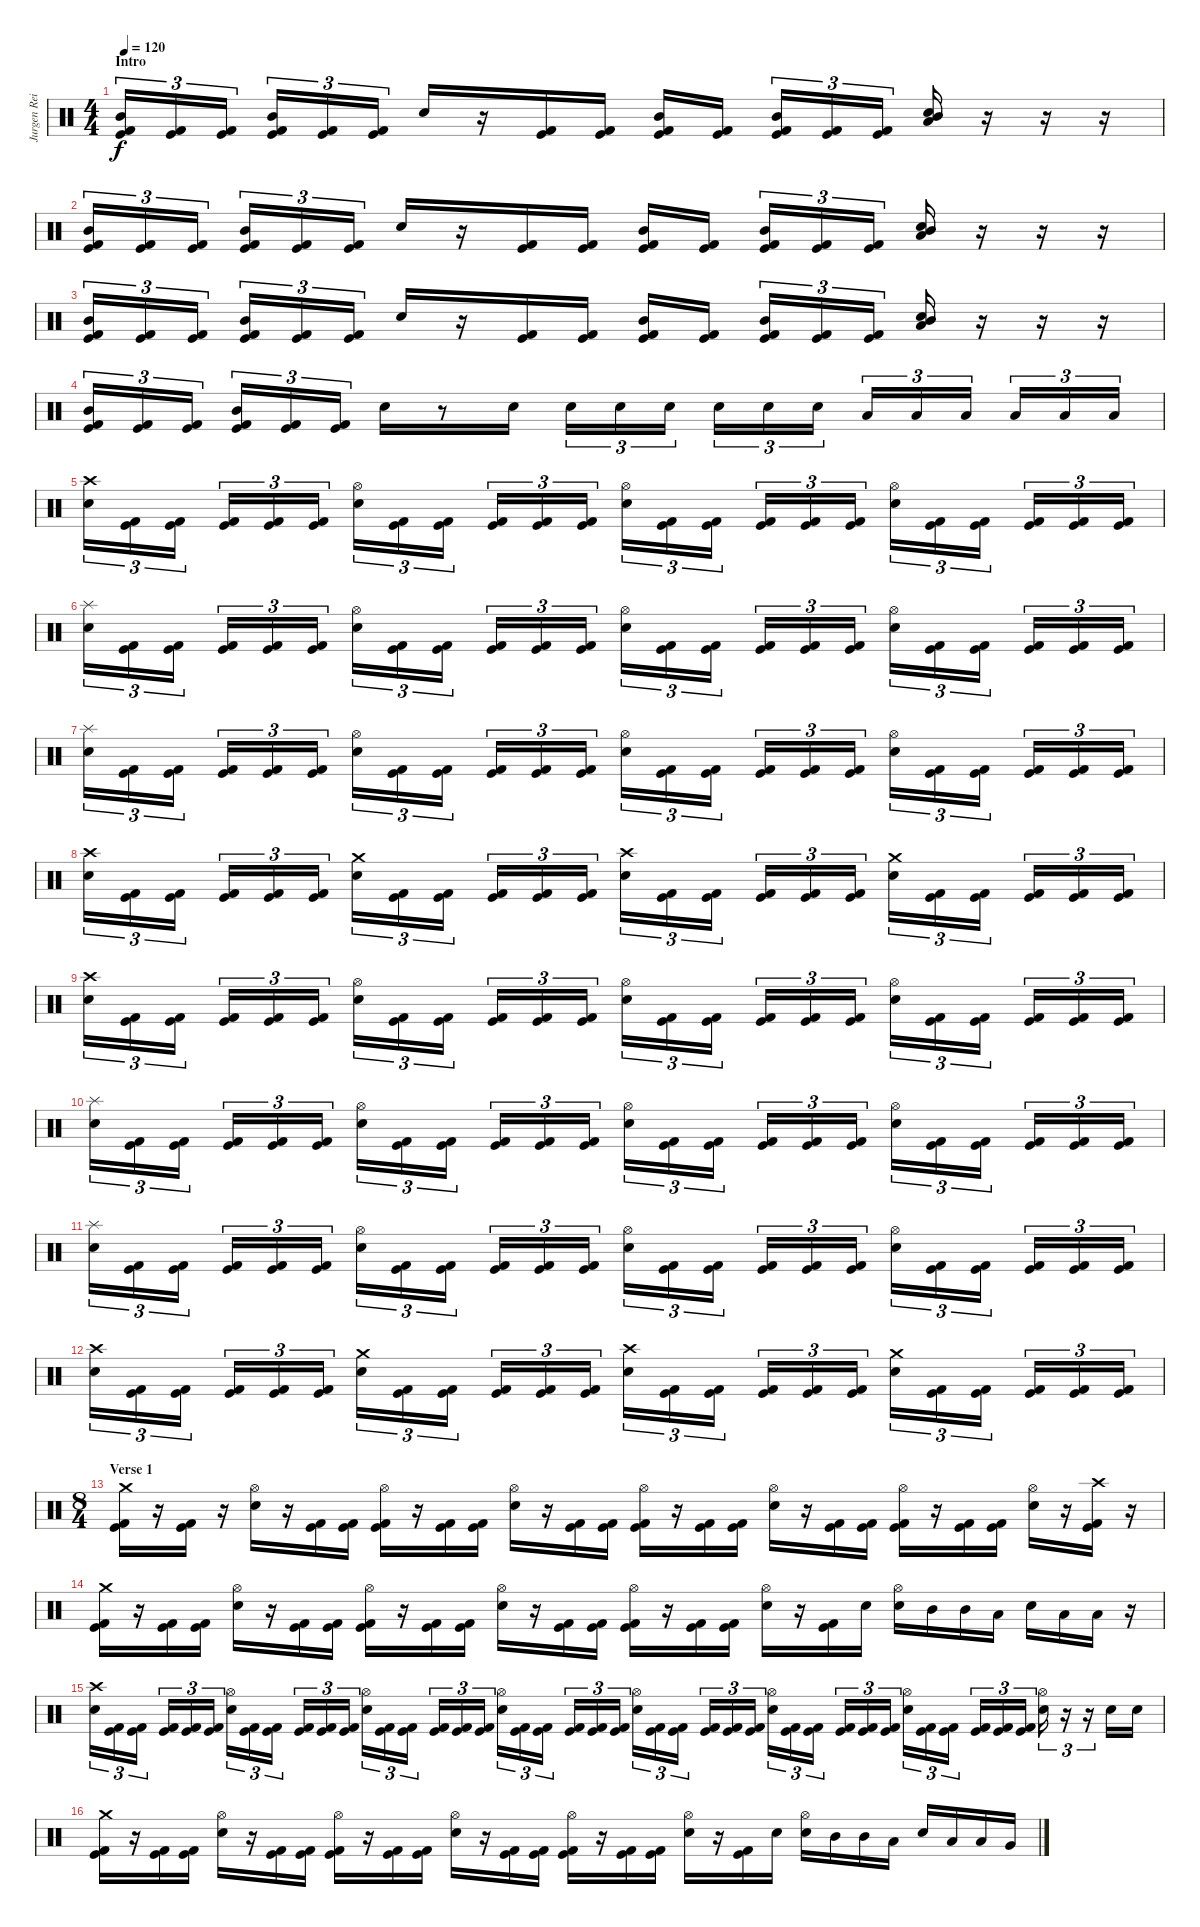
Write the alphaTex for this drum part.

\track ("Jurgen Reil" "Jurgen Rei") {instrument percussion}
\staff {score}
\articulation defaults
\ts (4 4)
\section ("" "Intro")
\tempo 120
\clef neutral
\ks c
("Mid Tom (hit)" "Kick (hit)" "Kick (hit) 2").16{tu (3 2) dy f} ("Kick (hit)" "Kick (hit) 2").16{tu (3 2)} ("Kick (hit)" "Kick (hit) 2").16{tu (3 2)} ("Mid Tom (hit)" "Kick (hit)" "Kick (hit) 2").16{tu (3 2)} ("Kick (hit)" "Kick (hit) 2").16{tu (3 2)} ("Kick (hit)" "Kick (hit) 2").16{tu (3 2)} "Electric Snare (hit)".16 r.16 ("Kick (hit)" "Kick (hit) 2").16 ("Kick (hit)" "Kick (hit) 2").16 ("Mid Tom (hit)" "Kick (hit)" "Kick (hit) 2").16 ("Kick (hit)" "Kick (hit) 2").16 ("Mid Tom (hit)" "Kick (hit)" "Kick (hit) 2").16{tu (3 2)} ("Kick (hit)" "Kick (hit) 2").16{tu (3 2)} ("Kick (hit)" "Kick (hit) 2").16{tu (3 2)} ("Mid Tom (hit)" "Low Tom (hit)" "Electric Snare (hit)").16 r.16 r.16 r.16 |
("Mid Tom (hit)" "Kick (hit)" "Kick (hit) 2").16{tu (3 2)} ("Kick (hit)" "Kick (hit) 2").16{tu (3 2)} ("Kick (hit)" "Kick (hit) 2").16{tu (3 2)} ("Mid Tom (hit)" "Kick (hit)" "Kick (hit) 2").16{tu (3 2)} ("Kick (hit)" "Kick (hit) 2").16{tu (3 2)} ("Kick (hit)" "Kick (hit) 2").16{tu (3 2)} "Electric Snare (hit)".16 r.16 ("Kick (hit)" "Kick (hit) 2").16 ("Kick (hit)" "Kick (hit) 2").16 ("Mid Tom (hit)" "Kick (hit)" "Kick (hit) 2").16 ("Kick (hit)" "Kick (hit) 2").16 ("Mid Tom (hit)" "Kick (hit)" "Kick (hit) 2").16{tu (3 2)} ("Kick (hit)" "Kick (hit) 2").16{tu (3 2)} ("Kick (hit)" "Kick (hit) 2").16{tu (3 2)} ("Mid Tom (hit)" "Low Tom (hit)" "Electric Snare (hit)").16 r.16 r.16 r.16 |
("Mid Tom (hit)" "Kick (hit)" "Kick (hit) 2").16{tu (3 2)} ("Kick (hit)" "Kick (hit) 2").16{tu (3 2)} ("Kick (hit)" "Kick (hit) 2").16{tu (3 2)} ("Mid Tom (hit)" "Kick (hit)" "Kick (hit) 2").16{tu (3 2)} ("Kick (hit)" "Kick (hit) 2").16{tu (3 2)} ("Kick (hit)" "Kick (hit) 2").16{tu (3 2)} "Electric Snare (hit)".16 r.16 ("Kick (hit)" "Kick (hit) 2").16 ("Kick (hit)" "Kick (hit) 2").16 ("Mid Tom (hit)" "Kick (hit)" "Kick (hit) 2").16 ("Kick (hit)" "Kick (hit) 2").16 ("Mid Tom (hit)" "Kick (hit)" "Kick (hit) 2").16{tu (3 2)} ("Kick (hit)" "Kick (hit) 2").16{tu (3 2)} ("Kick (hit)" "Kick (hit) 2").16{tu (3 2)} ("Mid Tom (hit)" "Low Tom (hit)" "Electric Snare (hit)").16 r.16 r.16 r.16 |
("Mid Tom (hit)" "Kick (hit)" "Kick (hit) 2").16{tu (3 2)} ("Kick (hit)" "Kick (hit) 2").16{tu (3 2)} ("Kick (hit)" "Kick (hit) 2").16{tu (3 2)} ("Mid Tom (hit)" "Kick (hit)" "Kick (hit) 2").16{tu (3 2)} ("Kick (hit)" "Kick (hit) 2").16{tu (3 2)} ("Kick (hit)" "Kick (hit) 2").16{tu (3 2)} "Electric Snare (hit)".16 r.8 "Electric Snare (hit)".16 "Electric Snare (hit)".16{tu (3 2)} "Electric Snare (hit)".16{tu (3 2)} "Electric Snare (hit)".16{tu (3 2)} "Electric Snare (hit)".16{tu (3 2)} "Electric Snare (hit)".16{tu (3 2)} "Electric Snare (hit)".16{tu (3 2)} "Low Tom (hit)".16{tu (3 2)} "Low Tom (hit)".16{tu (3 2)} "Low Tom (hit)".16{tu (3 2)} "Low Tom (hit)".16{tu (3 2)} "Low Tom (hit)".16{tu (3 2)} "Low Tom (hit)".16{tu (3 2)} |
("Crash high (hit)" "Electric Snare (hit)").16{tu (3 2)} ("Kick (hit)" "Kick (hit) 2").16{tu (3 2)} ("Kick (hit)" "Kick (hit) 2").16{tu (3 2)} ("Kick (hit)" "Kick (hit) 2").16{tu (3 2)} ("Kick (hit)" "Kick (hit) 2").16{tu (3 2)} ("Kick (hit)" "Kick (hit) 2").16{tu (3 2)} ("Hi-Hat (open)" "Electric Snare (hit)").16{tu (3 2)} ("Kick (hit)" "Kick (hit) 2").16{tu (3 2)} ("Kick (hit)" "Kick (hit) 2").16{tu (3 2)} ("Kick (hit)" "Kick (hit) 2").16{tu (3 2)} ("Kick (hit)" "Kick (hit) 2").16{tu (3 2)} ("Kick (hit)" "Kick (hit) 2").16{tu (3 2)} ("Hi-Hat (open)" "Electric Snare (hit)").16{tu (3 2)} ("Kick (hit)" "Kick (hit) 2").16{tu (3 2)} ("Kick (hit)" "Kick (hit) 2").16{tu (3 2)} ("Kick (hit)" "Kick (hit) 2").16{tu (3 2)} ("Kick (hit)" "Kick (hit) 2").16{tu (3 2)} ("Kick (hit)" "Kick (hit) 2").16{tu (3 2)} ("Hi-Hat (open)" "Electric Snare (hit)").16{tu (3 2)} ("Kick (hit)" "Kick (hit) 2").16{tu (3 2)} ("Kick (hit)" "Kick (hit) 2").16{tu (3 2)} ("Kick (hit)" "Kick (hit) 2").16{tu (3 2)} ("Kick (hit)" "Kick (hit) 2").16{tu (3 2)} ("Kick (hit)" "Kick (hit) 2").16{tu (3 2)} |
("Splash (hit)" "Electric Snare (hit)").16{tu (3 2)} ("Kick (hit)" "Kick (hit) 2").16{tu (3 2)} ("Kick (hit)" "Kick (hit) 2").16{tu (3 2)} ("Kick (hit)" "Kick (hit) 2").16{tu (3 2)} ("Kick (hit)" "Kick (hit) 2").16{tu (3 2)} ("Kick (hit)" "Kick (hit) 2").16{tu (3 2)} ("Hi-Hat (open)" "Electric Snare (hit)").16{tu (3 2)} ("Kick (hit)" "Kick (hit) 2").16{tu (3 2)} ("Kick (hit)" "Kick (hit) 2").16{tu (3 2)} ("Kick (hit)" "Kick (hit) 2").16{tu (3 2)} ("Kick (hit)" "Kick (hit) 2").16{tu (3 2)} ("Kick (hit)" "Kick (hit) 2").16{tu (3 2)} ("Hi-Hat (open)" "Electric Snare (hit)").16{tu (3 2)} ("Kick (hit)" "Kick (hit) 2").16{tu (3 2)} ("Kick (hit)" "Kick (hit) 2").16{tu (3 2)} ("Kick (hit)" "Kick (hit) 2").16{tu (3 2)} ("Kick (hit)" "Kick (hit) 2").16{tu (3 2)} ("Kick (hit)" "Kick (hit) 2").16{tu (3 2)} ("Hi-Hat (open)" "Electric Snare (hit)").16{tu (3 2)} ("Kick (hit)" "Kick (hit) 2").16{tu (3 2)} ("Kick (hit)" "Kick (hit) 2").16{tu (3 2)} ("Kick (hit)" "Kick (hit) 2").16{tu (3 2)} ("Kick (hit)" "Kick (hit) 2").16{tu (3 2)} ("Kick (hit)" "Kick (hit) 2").16{tu (3 2)} |
("Splash (hit)" "Electric Snare (hit)").16{tu (3 2)} ("Kick (hit)" "Kick (hit) 2").16{tu (3 2)} ("Kick (hit)" "Kick (hit) 2").16{tu (3 2)} ("Kick (hit)" "Kick (hit) 2").16{tu (3 2)} ("Kick (hit)" "Kick (hit) 2").16{tu (3 2)} ("Kick (hit)" "Kick (hit) 2").16{tu (3 2)} ("Hi-Hat (open)" "Electric Snare (hit)").16{tu (3 2)} ("Kick (hit)" "Kick (hit) 2").16{tu (3 2)} ("Kick (hit)" "Kick (hit) 2").16{tu (3 2)} ("Kick (hit)" "Kick (hit) 2").16{tu (3 2)} ("Kick (hit)" "Kick (hit) 2").16{tu (3 2)} ("Kick (hit)" "Kick (hit) 2").16{tu (3 2)} ("Hi-Hat (open)" "Electric Snare (hit)").16{tu (3 2)} ("Kick (hit)" "Kick (hit) 2").16{tu (3 2)} ("Kick (hit)" "Kick (hit) 2").16{tu (3 2)} ("Kick (hit)" "Kick (hit) 2").16{tu (3 2)} ("Kick (hit)" "Kick (hit) 2").16{tu (3 2)} ("Kick (hit)" "Kick (hit) 2").16{tu (3 2)} ("Hi-Hat (open)" "Electric Snare (hit)").16{tu (3 2)} ("Kick (hit)" "Kick (hit) 2").16{tu (3 2)} ("Kick (hit)" "Kick (hit) 2").16{tu (3 2)} ("Kick (hit)" "Kick (hit) 2").16{tu (3 2)} ("Kick (hit)" "Kick (hit) 2").16{tu (3 2)} ("Kick (hit)" "Kick (hit) 2").16{tu (3 2)} |
("Crash high (hit)" "Electric Snare (hit)").16{tu (3 2)} ("Kick (hit)" "Kick (hit) 2").16{tu (3 2)} ("Kick (hit)" "Kick (hit) 2").16{tu (3 2)} ("Kick (hit)" "Kick (hit) 2").16{tu (3 2)} ("Kick (hit)" "Kick (hit) 2").16{tu (3 2)} ("Kick (hit)" "Kick (hit) 2").16{tu (3 2)} ("Crash medium (hit)" "Electric Snare (hit)").16{tu (3 2)} ("Kick (hit)" "Kick (hit) 2").16{tu (3 2)} ("Kick (hit)" "Kick (hit) 2").16{tu (3 2)} ("Kick (hit)" "Kick (hit) 2").16{tu (3 2)} ("Kick (hit)" "Kick (hit) 2").16{tu (3 2)} ("Kick (hit)" "Kick (hit) 2").16{tu (3 2)} ("Crash high (hit)" "Electric Snare (hit)").16{tu (3 2)} ("Kick (hit)" "Kick (hit) 2").16{tu (3 2)} ("Kick (hit)" "Kick (hit) 2").16{tu (3 2)} ("Kick (hit)" "Kick (hit) 2").16{tu (3 2)} ("Kick (hit)" "Kick (hit) 2").16{tu (3 2)} ("Kick (hit)" "Kick (hit) 2").16{tu (3 2)} ("Crash medium (hit)" "Electric Snare (hit)").16{tu (3 2)} ("Kick (hit)" "Kick (hit) 2").16{tu (3 2)} ("Kick (hit)" "Kick (hit) 2").16{tu (3 2)} ("Kick (hit)" "Kick (hit) 2").16{tu (3 2)} ("Kick (hit)" "Kick (hit) 2").16{tu (3 2)} ("Kick (hit)" "Kick (hit) 2").16{tu (3 2)} |
("Crash high (hit)" "Electric Snare (hit)").16{tu (3 2)} ("Kick (hit)" "Kick (hit) 2").16{tu (3 2)} ("Kick (hit)" "Kick (hit) 2").16{tu (3 2)} ("Kick (hit)" "Kick (hit) 2").16{tu (3 2)} ("Kick (hit)" "Kick (hit) 2").16{tu (3 2)} ("Kick (hit)" "Kick (hit) 2").16{tu (3 2)} ("Hi-Hat (open)" "Electric Snare (hit)").16{tu (3 2)} ("Kick (hit)" "Kick (hit) 2").16{tu (3 2)} ("Kick (hit)" "Kick (hit) 2").16{tu (3 2)} ("Kick (hit)" "Kick (hit) 2").16{tu (3 2)} ("Kick (hit)" "Kick (hit) 2").16{tu (3 2)} ("Kick (hit)" "Kick (hit) 2").16{tu (3 2)} ("Hi-Hat (open)" "Electric Snare (hit)").16{tu (3 2)} ("Kick (hit)" "Kick (hit) 2").16{tu (3 2)} ("Kick (hit)" "Kick (hit) 2").16{tu (3 2)} ("Kick (hit)" "Kick (hit) 2").16{tu (3 2)} ("Kick (hit)" "Kick (hit) 2").16{tu (3 2)} ("Kick (hit)" "Kick (hit) 2").16{tu (3 2)} ("Hi-Hat (open)" "Electric Snare (hit)").16{tu (3 2)} ("Kick (hit)" "Kick (hit) 2").16{tu (3 2)} ("Kick (hit)" "Kick (hit) 2").16{tu (3 2)} ("Kick (hit)" "Kick (hit) 2").16{tu (3 2)} ("Kick (hit)" "Kick (hit) 2").16{tu (3 2)} ("Kick (hit)" "Kick (hit) 2").16{tu (3 2)} |
("Splash (hit)" "Electric Snare (hit)").16{tu (3 2)} ("Kick (hit)" "Kick (hit) 2").16{tu (3 2)} ("Kick (hit)" "Kick (hit) 2").16{tu (3 2)} ("Kick (hit)" "Kick (hit) 2").16{tu (3 2)} ("Kick (hit)" "Kick (hit) 2").16{tu (3 2)} ("Kick (hit)" "Kick (hit) 2").16{tu (3 2)} ("Hi-Hat (open)" "Electric Snare (hit)").16{tu (3 2)} ("Kick (hit)" "Kick (hit) 2").16{tu (3 2)} ("Kick (hit)" "Kick (hit) 2").16{tu (3 2)} ("Kick (hit)" "Kick (hit) 2").16{tu (3 2)} ("Kick (hit)" "Kick (hit) 2").16{tu (3 2)} ("Kick (hit)" "Kick (hit) 2").16{tu (3 2)} ("Hi-Hat (open)" "Electric Snare (hit)").16{tu (3 2)} ("Kick (hit)" "Kick (hit) 2").16{tu (3 2)} ("Kick (hit)" "Kick (hit) 2").16{tu (3 2)} ("Kick (hit)" "Kick (hit) 2").16{tu (3 2)} ("Kick (hit)" "Kick (hit) 2").16{tu (3 2)} ("Kick (hit)" "Kick (hit) 2").16{tu (3 2)} ("Hi-Hat (open)" "Electric Snare (hit)").16{tu (3 2)} ("Kick (hit)" "Kick (hit) 2").16{tu (3 2)} ("Kick (hit)" "Kick (hit) 2").16{tu (3 2)} ("Kick (hit)" "Kick (hit) 2").16{tu (3 2)} ("Kick (hit)" "Kick (hit) 2").16{tu (3 2)} ("Kick (hit)" "Kick (hit) 2").16{tu (3 2)} |
("Splash (hit)" "Electric Snare (hit)").16{tu (3 2)} ("Kick (hit)" "Kick (hit) 2").16{tu (3 2)} ("Kick (hit)" "Kick (hit) 2").16{tu (3 2)} ("Kick (hit)" "Kick (hit) 2").16{tu (3 2)} ("Kick (hit)" "Kick (hit) 2").16{tu (3 2)} ("Kick (hit)" "Kick (hit) 2").16{tu (3 2)} ("Hi-Hat (open)" "Electric Snare (hit)").16{tu (3 2)} ("Kick (hit)" "Kick (hit) 2").16{tu (3 2)} ("Kick (hit)" "Kick (hit) 2").16{tu (3 2)} ("Kick (hit)" "Kick (hit) 2").16{tu (3 2)} ("Kick (hit)" "Kick (hit) 2").16{tu (3 2)} ("Kick (hit)" "Kick (hit) 2").16{tu (3 2)} ("Hi-Hat (open)" "Electric Snare (hit)").16{tu (3 2)} ("Kick (hit)" "Kick (hit) 2").16{tu (3 2)} ("Kick (hit)" "Kick (hit) 2").16{tu (3 2)} ("Kick (hit)" "Kick (hit) 2").16{tu (3 2)} ("Kick (hit)" "Kick (hit) 2").16{tu (3 2)} ("Kick (hit)" "Kick (hit) 2").16{tu (3 2)} ("Hi-Hat (open)" "Electric Snare (hit)").16{tu (3 2)} ("Kick (hit)" "Kick (hit) 2").16{tu (3 2)} ("Kick (hit)" "Kick (hit) 2").16{tu (3 2)} ("Kick (hit)" "Kick (hit) 2").16{tu (3 2)} ("Kick (hit)" "Kick (hit) 2").16{tu (3 2)} ("Kick (hit)" "Kick (hit) 2").16{tu (3 2)} |
("Crash high (hit)" "Electric Snare (hit)").16{tu (3 2)} ("Kick (hit)" "Kick (hit) 2").16{tu (3 2)} ("Kick (hit)" "Kick (hit) 2").16{tu (3 2)} ("Kick (hit)" "Kick (hit) 2").16{tu (3 2)} ("Kick (hit)" "Kick (hit) 2").16{tu (3 2)} ("Kick (hit)" "Kick (hit) 2").16{tu (3 2)} ("Crash medium (hit)" "Electric Snare (hit)").16{tu (3 2)} ("Kick (hit)" "Kick (hit) 2").16{tu (3 2)} ("Kick (hit)" "Kick (hit) 2").16{tu (3 2)} ("Kick (hit)" "Kick (hit) 2").16{tu (3 2)} ("Kick (hit)" "Kick (hit) 2").16{tu (3 2)} ("Kick (hit)" "Kick (hit) 2").16{tu (3 2)} ("Crash high (hit)" "Electric Snare (hit)").16{tu (3 2)} ("Kick (hit)" "Kick (hit) 2").16{tu (3 2)} ("Kick (hit)" "Kick (hit) 2").16{tu (3 2)} ("Kick (hit)" "Kick (hit) 2").16{tu (3 2)} ("Kick (hit)" "Kick (hit) 2").16{tu (3 2)} ("Kick (hit)" "Kick (hit) 2").16{tu (3 2)} ("Crash medium (hit)" "Electric Snare (hit)").16{tu (3 2)} ("Kick (hit)" "Kick (hit) 2").16{tu (3 2)} ("Kick (hit)" "Kick (hit) 2").16{tu (3 2)} ("Kick (hit)" "Kick (hit) 2").16{tu (3 2)} ("Kick (hit)" "Kick (hit) 2").16{tu (3 2)} ("Kick (hit)" "Kick (hit) 2").16{tu (3 2)} |
\ts (8 4)
\section ("" "Verse 1")
("Crash medium (hit)" "Kick (hit)" "Kick (hit) 2").16 r.16 ("Kick (hit)" "Kick (hit) 2").16 r.16 ("Hi-Hat (open)" "Electric Snare (hit)").16 r.16 ("Kick (hit)" "Kick (hit) 2").16 ("Kick (hit)" "Kick (hit) 2").16 ("Hi-Hat (open)" "Kick (hit)" "Kick (hit) 2").16 r.16 ("Kick (hit)" "Kick (hit) 2").16 ("Kick (hit)" "Kick (hit) 2").16 ("Hi-Hat (open)" "Electric Snare (hit)").16 r.16 ("Kick (hit)" "Kick (hit) 2").16 ("Kick (hit)" "Kick (hit) 2").16 ("Hi-Hat (open)" "Kick (hit)" "Kick (hit) 2").16 r.16 ("Kick (hit)" "Kick (hit) 2").16 ("Kick (hit)" "Kick (hit) 2").16 ("Hi-Hat (open)" "Electric Snare (hit)").16 r.16 ("Kick (hit)" "Kick (hit) 2").16 ("Kick (hit)" "Kick (hit) 2").16 ("Hi-Hat (open)" "Kick (hit)" "Kick (hit) 2").16 r.16 ("Kick (hit)" "Kick (hit) 2").16 ("Kick (hit)" "Kick (hit) 2").16 ("Hi-Hat (open)" "Electric Snare (hit)").16 r.16 ("Crash high (hit)" "Kick (hit)" "Kick (hit) 2").16 r.16 |
("Crash medium (hit)" "Kick (hit)" "Kick (hit) 2").16 r.16 ("Kick (hit)" "Kick (hit) 2").16 ("Kick (hit)" "Kick (hit) 2").16 ("Hi-Hat (open)" "Electric Snare (hit)").16 r.16 ("Kick (hit)" "Kick (hit) 2").16 ("Kick (hit)" "Kick (hit) 2").16 ("Hi-Hat (open)" "Kick (hit)" "Kick (hit) 2").16 r.16 ("Kick (hit)" "Kick (hit) 2").16 ("Kick (hit)" "Kick (hit) 2").16 ("Hi-Hat (open)" "Electric Snare (hit)").16 r.16 ("Kick (hit)" "Kick (hit) 2").16 ("Kick (hit)" "Kick (hit) 2").16 ("Hi-Hat (open)" "Kick (hit)" "Kick (hit) 2").16 r.16 ("Kick (hit)" "Kick (hit) 2").16 ("Kick (hit)" "Kick (hit) 2").16 ("Hi-Hat (open)" "Electric Snare (hit)").16 r.16 ("Kick (hit)" "Kick (hit) 2").16 "Electric Snare (hit)".16 ("Hi-Hat (open)" "Electric Snare (hit)").16 "Mid Tom (hit)".16 "Mid Tom (hit)".16 "Low Tom (hit)".16 "Electric Snare (hit)".16 "Low Tom (hit)".16 "Low Tom (hit)".16 r.16 |
("Crash high (hit)" "Electric Snare (hit)").16{tu (3 2)} ("Kick (hit)" "Kick (hit) 2").16{tu (3 2)} ("Kick (hit)" "Kick (hit) 2").16{tu (3 2)} ("Kick (hit)" "Kick (hit) 2").16{tu (3 2)} ("Kick (hit)" "Kick (hit) 2").16{tu (3 2)} ("Kick (hit)" "Kick (hit) 2").16{tu (3 2)} ("Hi-Hat (open)" "Electric Snare (hit)").16{tu (3 2)} ("Kick (hit)" "Kick (hit) 2").16{tu (3 2)} ("Kick (hit)" "Kick (hit) 2").16{tu (3 2)} ("Kick (hit)" "Kick (hit) 2").16{tu (3 2)} ("Kick (hit)" "Kick (hit) 2").16{tu (3 2)} ("Kick (hit)" "Kick (hit) 2").16{tu (3 2)} ("Hi-Hat (open)" "Electric Snare (hit)").16{tu (3 2)} ("Kick (hit)" "Kick (hit) 2").16{tu (3 2)} ("Kick (hit)" "Kick (hit) 2").16{tu (3 2)} ("Kick (hit)" "Kick (hit) 2").16{tu (3 2)} ("Kick (hit)" "Kick (hit) 2").16{tu (3 2)} ("Kick (hit)" "Kick (hit) 2").16{tu (3 2)} ("Hi-Hat (open)" "Electric Snare (hit)").16{tu (3 2)} ("Kick (hit)" "Kick (hit) 2").16{tu (3 2)} ("Kick (hit)" "Kick (hit) 2").16{tu (3 2)} ("Kick (hit)" "Kick (hit) 2").16{tu (3 2)} ("Kick (hit)" "Kick (hit) 2").16{tu (3 2)} ("Kick (hit)" "Kick (hit) 2").16{tu (3 2)} ("Hi-Hat (open)" "Electric Snare (hit)").16{tu (3 2)} ("Kick (hit)" "Kick (hit) 2").16{tu (3 2)} ("Kick (hit)" "Kick (hit) 2").16{tu (3 2)} ("Kick (hit)" "Kick (hit) 2").16{tu (3 2)} ("Kick (hit)" "Kick (hit) 2").16{tu (3 2)} ("Kick (hit)" "Kick (hit) 2").16{tu (3 2)} ("Hi-Hat (open)" "Electric Snare (hit)").16{tu (3 2)} ("Kick (hit)" "Kick (hit) 2").16{tu (3 2)} ("Kick (hit)" "Kick (hit) 2").16{tu (3 2)} ("Kick (hit)" "Kick (hit) 2").16{tu (3 2)} ("Kick (hit)" "Kick (hit) 2").16{tu (3 2)} ("Kick (hit)" "Kick (hit) 2").16{tu (3 2)} ("Hi-Hat (open)" "Electric Snare (hit)").16{tu (3 2)} ("Kick (hit)" "Kick (hit) 2").16{tu (3 2)} ("Kick (hit)" "Kick (hit) 2").16{tu (3 2)} ("Kick (hit)" "Kick (hit) 2").16{tu (3 2)} ("Kick (hit)" "Kick (hit) 2").16{tu (3 2)} ("Kick (hit)" "Kick (hit) 2").16{tu (3 2)} ("Hi-Hat (open)" "Electric Snare (hit)").16{tu (3 2)} r.16{tu (3 2)} r.16{tu (3 2)} "Electric Snare (hit)".16 "Electric Snare (hit)".16 |
("Crash medium (hit)" "Kick (hit)" "Kick (hit) 2").16 r.16 ("Kick (hit)" "Kick (hit) 2").16 ("Kick (hit)" "Kick (hit) 2").16 ("Hi-Hat (open)" "Electric Snare (hit)").16 r.16 ("Kick (hit)" "Kick (hit) 2").16 ("Kick (hit)" "Kick (hit) 2").16 ("Hi-Hat (open)" "Kick (hit)" "Kick (hit) 2").16 r.16 ("Kick (hit)" "Kick (hit) 2").16 ("Kick (hit)" "Kick (hit) 2").16 ("Hi-Hat (open)" "Electric Snare (hit)").16 r.16 ("Kick (hit)" "Kick (hit) 2").16 ("Kick (hit)" "Kick (hit) 2").16 ("Hi-Hat (open)" "Kick (hit)" "Kick (hit) 2").16 r.16 ("Kick (hit)" "Kick (hit) 2").16 ("Kick (hit)" "Kick (hit) 2").16 ("Hi-Hat (open)" "Electric Snare (hit)").16 r.16 ("Kick (hit)" "Kick (hit) 2").16 "Electric Snare (hit)".16 ("Hi-Hat (open)" "Electric Snare (hit)").16 "Mid Tom (hit)".16 "Mid Tom (hit)".16 "Low Tom (hit)".16 "Electric Snare (hit)".16 "Low Tom (hit)".16 "Low Tom (hit)".16 "Very Low Tom (hit)".16
